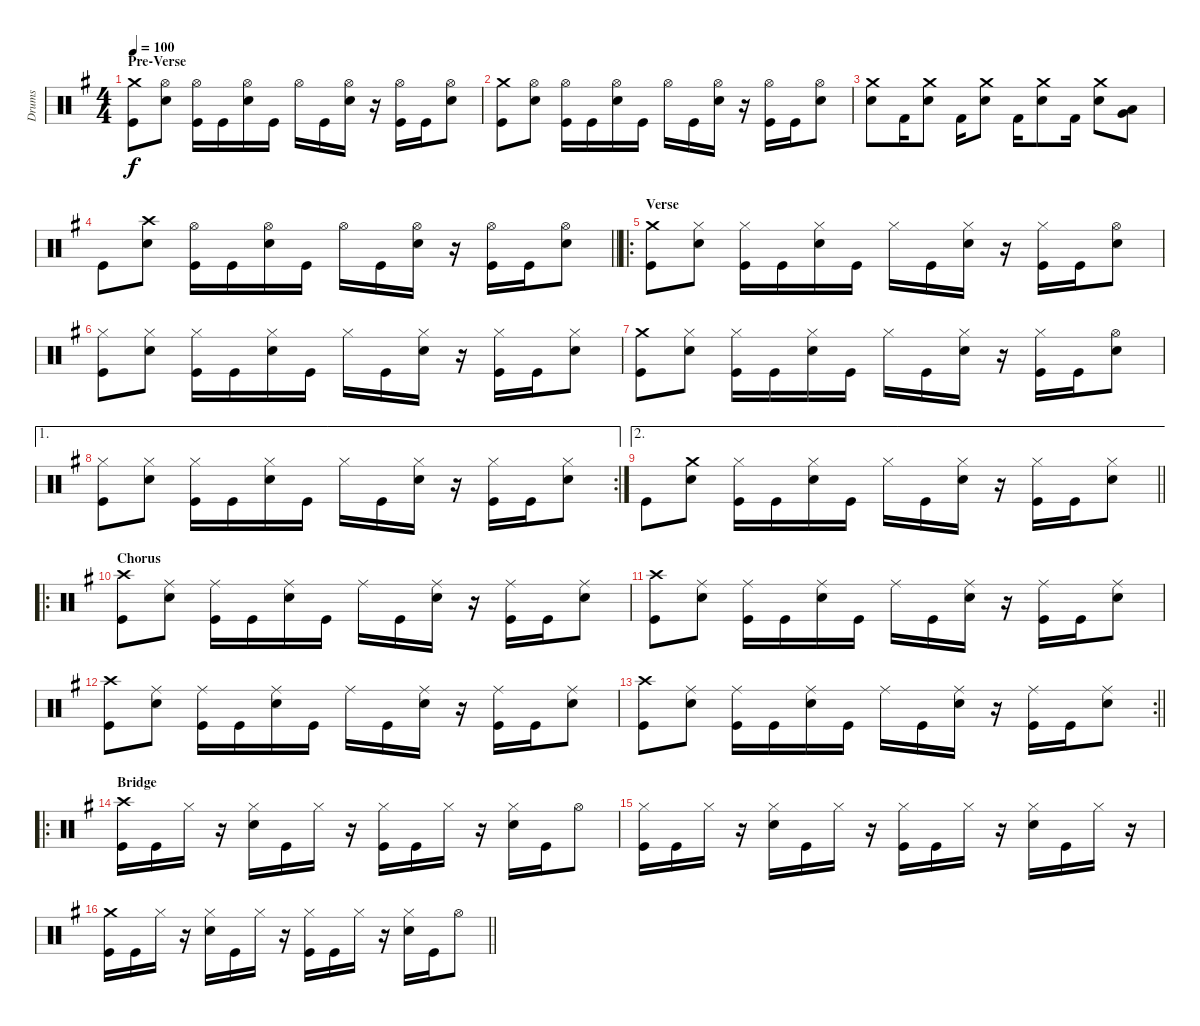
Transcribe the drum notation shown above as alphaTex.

\track ("Drums" "Drums") {instrument percussion}
\staff {score}
\articulation defaults
\ts (4 4)
\section ("" "Pre-Verse")
\tempo 100
\clef neutral
\ks g
("Crash medium (hit)" "Kick (hit)").8{dy f} ("Hi-Hat (open)" "Electric Snare (hit)").8 ("Hi-Hat (open)" "Kick (hit)").16 "Kick (hit)".16 ("Hi-Hat (open)" "Electric Snare (hit)").16 "Kick (hit)".16 "Hi-Hat (open)".16 "Kick (hit)".16 ("Hi-Hat (open)" "Electric Snare (hit)").16 r.16 ("Hi-Hat (open)" "Kick (hit)").16 "Kick (hit)".16 ("Hi-Hat (open)" "Electric Snare (hit)").8 |
("Crash medium (hit)" "Kick (hit)").8 ("Hi-Hat (open)" "Electric Snare (hit)").8 ("Hi-Hat (open)" "Kick (hit)").16 "Kick (hit)".16 ("Hi-Hat (open)" "Electric Snare (hit)").16 "Kick (hit)".16 "Hi-Hat (open)".16 "Kick (hit)".16 ("Hi-Hat (open)" "Electric Snare (hit)").16 r.16 ("Hi-Hat (open)" "Kick (hit)").16 "Kick (hit)".16 ("Hi-Hat (open)" "Electric Snare (hit)").8 |
("Crash medium (hit)" "Electric Snare (hit)").8 "Kick (hit) 2".16 ("Crash medium (hit)" "Electric Snare (hit)").8 "Kick (hit) 2".16 ("Crash medium (hit)" "Electric Snare (hit)").8 "Kick (hit) 2".16 ("Crash medium (hit)" "Electric Snare (hit)").8 "Kick (hit) 2".16 ("Crash medium (hit)" "Electric Snare (hit)").8 ("Very Low Tom (hit)" "Low Floor Tom (hit)").8 |
\barLineRight lightlight "Kick (hit)".8
("Crash high (hit)" "Electric Snare (hit)").8 ("Hi-Hat (open)" "Kick (hit)").16 "Kick (hit)".16 ("Hi-Hat (open)" "Electric Snare (hit)").16 "Kick (hit)".16 "Hi-Hat (open)".16 "Kick (hit)".16 ("Hi-Hat (open)" "Electric Snare (hit)").16 r.16 ("Hi-Hat (open)" "Kick (hit)").16 "Kick (hit)".16 ("Hi-Hat (open)" "Electric Snare (hit)").8 |
\ro
\section ("" "Verse")
("Crash medium (hit)" "Kick (hit)").8 ("Hi-Hat (closed)" "Electric Snare (hit)").8 ("Hi-Hat (closed)" "Kick (hit)").16 "Kick (hit)".16 ("Hi-Hat (closed)" "Electric Snare (hit)").16 "Kick (hit)".16 "Hi-Hat (closed)".16 "Kick (hit)".16 ("Hi-Hat (closed)" "Electric Snare (hit)").16 r.16 ("Hi-Hat (closed)" "Kick (hit)").16 "Kick (hit)".16 ("Hi-Hat (open)" "Electric Snare (hit)").8 |
("Hi-Hat (closed)" "Kick (hit)").8 ("Hi-Hat (closed)" "Electric Snare (hit)").8 ("Hi-Hat (closed)" "Kick (hit)").16 "Kick (hit)".16 ("Hi-Hat (closed)" "Electric Snare (hit)").16 "Kick (hit)".16 "Hi-Hat (closed)".16 "Kick (hit)".16 ("Hi-Hat (closed)" "Electric Snare (hit)").16 r.16 ("Hi-Hat (closed)" "Kick (hit)").16 "Kick (hit)".16 ("Hi-Hat (closed)" "Electric Snare (hit)").8 |
("Crash medium (hit)" "Kick (hit)").8 ("Hi-Hat (closed)" "Electric Snare (hit)").8 ("Hi-Hat (closed)" "Kick (hit)").16 "Kick (hit)".16 ("Hi-Hat (closed)" "Electric Snare (hit)").16 "Kick (hit)".16 "Hi-Hat (closed)".16 "Kick (hit)".16 ("Hi-Hat (closed)" "Electric Snare (hit)").16 r.16 ("Hi-Hat (closed)" "Kick (hit)").16 "Kick (hit)".16 ("Hi-Hat (open)" "Electric Snare (hit)").8 |
\ae 1
\rc 2
("Hi-Hat (closed)" "Kick (hit)").8 ("Hi-Hat (closed)" "Electric Snare (hit)").8 ("Hi-Hat (closed)" "Kick (hit)").16 "Kick (hit)".16 ("Hi-Hat (closed)" "Electric Snare (hit)").16 "Kick (hit)".16 "Hi-Hat (closed)".16 "Kick (hit)".16 ("Hi-Hat (closed)" "Electric Snare (hit)").16 r.16 ("Hi-Hat (closed)" "Kick (hit)").16 "Kick (hit)".16 ("Hi-Hat (closed)" "Electric Snare (hit)").8 |
\ae 2
\barLineRight lightlight "Kick (hit)".8
("Crash medium (hit)" "Electric Snare (hit)").8 ("Hi-Hat (closed)" "Kick (hit)").16 "Kick (hit)".16 ("Hi-Hat (closed)" "Electric Snare (hit)").16 "Kick (hit)".16 "Hi-Hat (closed)".16 "Kick (hit)".16 ("Hi-Hat (closed)" "Electric Snare (hit)").16 r.16 ("Hi-Hat (closed)" "Kick (hit)").16 "Kick (hit)".16 ("Hi-Hat (closed)" "Electric Snare (hit)").8 |
\ro
\section ("" "Chorus")
("Crash high (hit)" "Kick (hit)").8 ("Ride (middle)" "Electric Snare (hit)").8 ("Ride (middle)" "Kick (hit)").16 "Kick (hit)".16 ("Ride (middle)" "Electric Snare (hit)").16 "Kick (hit)".16 "Ride (middle)".16 "Kick (hit)".16 ("Ride (middle)" "Electric Snare (hit)").16 r.16 ("Ride (middle)" "Kick (hit)").16 "Kick (hit)".16 ("Ride (middle)" "Electric Snare (hit)").8 |
("Crash high (hit)" "Kick (hit)").8 ("Ride (middle)" "Electric Snare (hit)").8 ("Ride (middle)" "Kick (hit)").16 "Kick (hit)".16 ("Ride (middle)" "Electric Snare (hit)").16 "Kick (hit)".16 "Ride (middle)".16 "Kick (hit)".16 ("Ride (middle)" "Electric Snare (hit)").16 r.16 ("Ride (middle)" "Kick (hit)").16 "Kick (hit)".16 ("Ride (middle)" "Electric Snare (hit)").8 |
("Crash high (hit)" "Kick (hit)").8 ("Ride (middle)" "Electric Snare (hit)").8 ("Ride (middle)" "Kick (hit)").16 "Kick (hit)".16 ("Ride (middle)" "Electric Snare (hit)").16 "Kick (hit)".16 "Ride (middle)".16 "Kick (hit)".16 ("Ride (middle)" "Electric Snare (hit)").16 r.16 ("Ride (middle)" "Kick (hit)").16 "Kick (hit)".16 ("Ride (middle)" "Electric Snare (hit)").8 |
\rc 2
\barLineRight lightlight
("Crash high (hit)" "Kick (hit)").8 ("Ride (middle)" "Electric Snare (hit)").8 ("Ride (middle)" "Kick (hit)").16 "Kick (hit)".16 ("Ride (middle)" "Electric Snare (hit)").16 "Kick (hit)".16 "Ride (middle)".16 "Kick (hit)".16 ("Ride (middle)" "Electric Snare (hit)").16 r.16 ("Ride (middle)" "Kick (hit)").16 "Kick (hit)".16 ("Ride (middle)" "Electric Snare (hit)").8 |
\ro
\section ("" "Bridge")
("Crash high (hit)" "Kick (hit)").16 "Kick (hit)".16 "Hi-Hat (closed)".16 r.16 ("Hi-Hat (closed)" "Electric Snare (hit)").16 "Kick (hit)".16 "Hi-Hat (closed)".16 r.16 ("Hi-Hat (closed)" "Kick (hit)").16 "Kick (hit)".16 "Hi-Hat (closed)".16 r.16 ("Hi-Hat (closed)" "Electric Snare (hit)").16 "Kick (hit)".16 "Hi-Hat (open)".8 |
("Hi-Hat (closed)" "Kick (hit)").16 "Kick (hit)".16 "Hi-Hat (closed)".16 r.16 ("Hi-Hat (closed)" "Electric Snare (hit)").16 "Kick (hit)".16 "Hi-Hat (closed)".16 r.16 ("Hi-Hat (closed)" "Kick (hit)").16 "Kick (hit)".16 "Hi-Hat (closed)".16 r.16 ("Hi-Hat (closed)" "Electric Snare (hit)").16 "Kick (hit)".16 "Hi-Hat (closed)".16 r.16 |
\barLineRight lightlight
("Crash medium (hit)" "Kick (hit)").16 "Kick (hit)".16 "Hi-Hat (closed)".16 r.16 ("Hi-Hat (closed)" "Electric Snare (hit)").16 "Kick (hit)".16 "Hi-Hat (closed)".16 r.16 ("Hi-Hat (closed)" "Kick (hit)").16 "Kick (hit)".16 "Hi-Hat (closed)".16 r.16 ("Hi-Hat (closed)" "Electric Snare (hit)").16 "Kick (hit)".16 "Hi-Hat (open)".8
